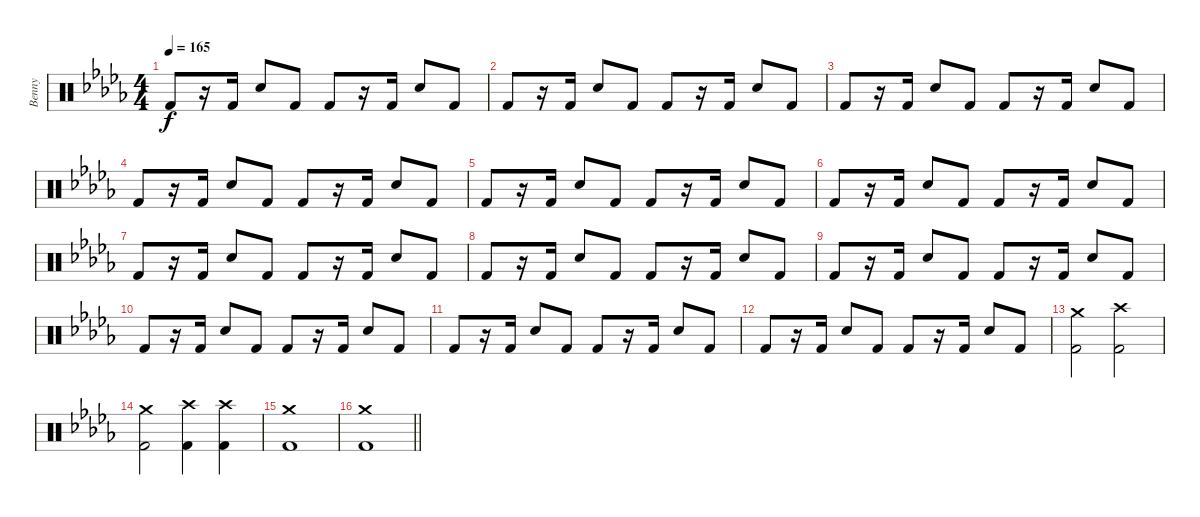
\track ("Benny" "Benny") {instrument percussion}
\staff {score}
\articulation defaults
\ts (4 4)
\tempo 165
\clef neutral
\ks db "Kick (hit) 2".8{dy f}
r.16 "Kick (hit) 2".16 "Snare (hit) 2".8 "Kick (hit) 2".8 "Kick (hit) 2".8 r.16 "Kick (hit) 2".16 "Snare (hit) 2".8 "Kick (hit) 2".8 |
"Kick (hit) 2".8 r.16 "Kick (hit) 2".16 "Snare (hit) 2".8 "Kick (hit) 2".8 "Kick (hit) 2".8 r.16 "Kick (hit) 2".16 "Snare (hit) 2".8 "Kick (hit) 2".8 |
"Kick (hit) 2".8 r.16 "Kick (hit) 2".16 "Snare (hit) 2".8 "Kick (hit) 2".8 "Kick (hit) 2".8 r.16 "Kick (hit) 2".16 "Snare (hit) 2".8 "Kick (hit) 2".8 |
"Kick (hit) 2".8 r.16 "Kick (hit) 2".16 "Snare (hit) 2".8 "Kick (hit) 2".8 "Kick (hit) 2".8 r.16 "Kick (hit) 2".16 "Snare (hit) 2".8 "Kick (hit) 2".8 |
"Kick (hit) 2".8 r.16 "Kick (hit) 2".16 "Snare (hit) 2".8 "Kick (hit) 2".8 "Kick (hit) 2".8 r.16 "Kick (hit) 2".16 "Snare (hit) 2".8 "Kick (hit) 2".8 |
"Kick (hit) 2".8 r.16 "Kick (hit) 2".16 "Snare (hit) 2".8 "Kick (hit) 2".8 "Kick (hit) 2".8 r.16 "Kick (hit) 2".16 "Snare (hit) 2".8 "Kick (hit) 2".8 |
"Kick (hit) 2".8 r.16 "Kick (hit) 2".16 "Snare (hit) 2".8 "Kick (hit) 2".8 "Kick (hit) 2".8 r.16 "Kick (hit) 2".16 "Snare (hit) 2".8 "Kick (hit) 2".8 |
"Kick (hit) 2".8 r.16 "Kick (hit) 2".16 "Snare (hit) 2".8 "Kick (hit) 2".8 "Kick (hit) 2".8 r.16 "Kick (hit) 2".16 "Snare (hit) 2".8 "Kick (hit) 2".8 |
"Kick (hit) 2".8 r.16 "Kick (hit) 2".16 "Snare (hit) 2".8 "Kick (hit) 2".8 "Kick (hit) 2".8 r.16 "Kick (hit) 2".16 "Snare (hit) 2".8 "Kick (hit) 2".8 |
"Kick (hit) 2".8 r.16 "Kick (hit) 2".16 "Snare (hit) 2".8 "Kick (hit) 2".8 "Kick (hit) 2".8 r.16 "Kick (hit) 2".16 "Snare (hit) 2".8 "Kick (hit) 2".8 |
"Kick (hit) 2".8 r.16 "Kick (hit) 2".16 "Snare (hit) 2".8 "Kick (hit) 2".8 "Kick (hit) 2".8 r.16 "Kick (hit) 2".16 "Snare (hit) 2".8 "Kick (hit) 2".8 |
"Kick (hit) 2".8 r.16 "Kick (hit) 2".16 "Snare (hit) 2".8 "Kick (hit) 2".8 "Kick (hit) 2".8 r.16 "Kick (hit) 2".16 "Snare (hit) 2".8 "Kick (hit) 2".8 |
("Crash medium (hit)" "Kick (hit) 2").2 ("Crash high (hit)" "Kick (hit) 2").2 |
("Crash medium (hit)" "Kick (hit) 2").2 ("Crash high (hit)" "Kick (hit) 2").4 ("Crash high (hit)" "Kick (hit) 2").4 |
("Crash medium (hit)" "Kick (hit) 2").1 |
\barLineRight lightlight
("Crash medium (hit)" "Kick (hit) 2").1
